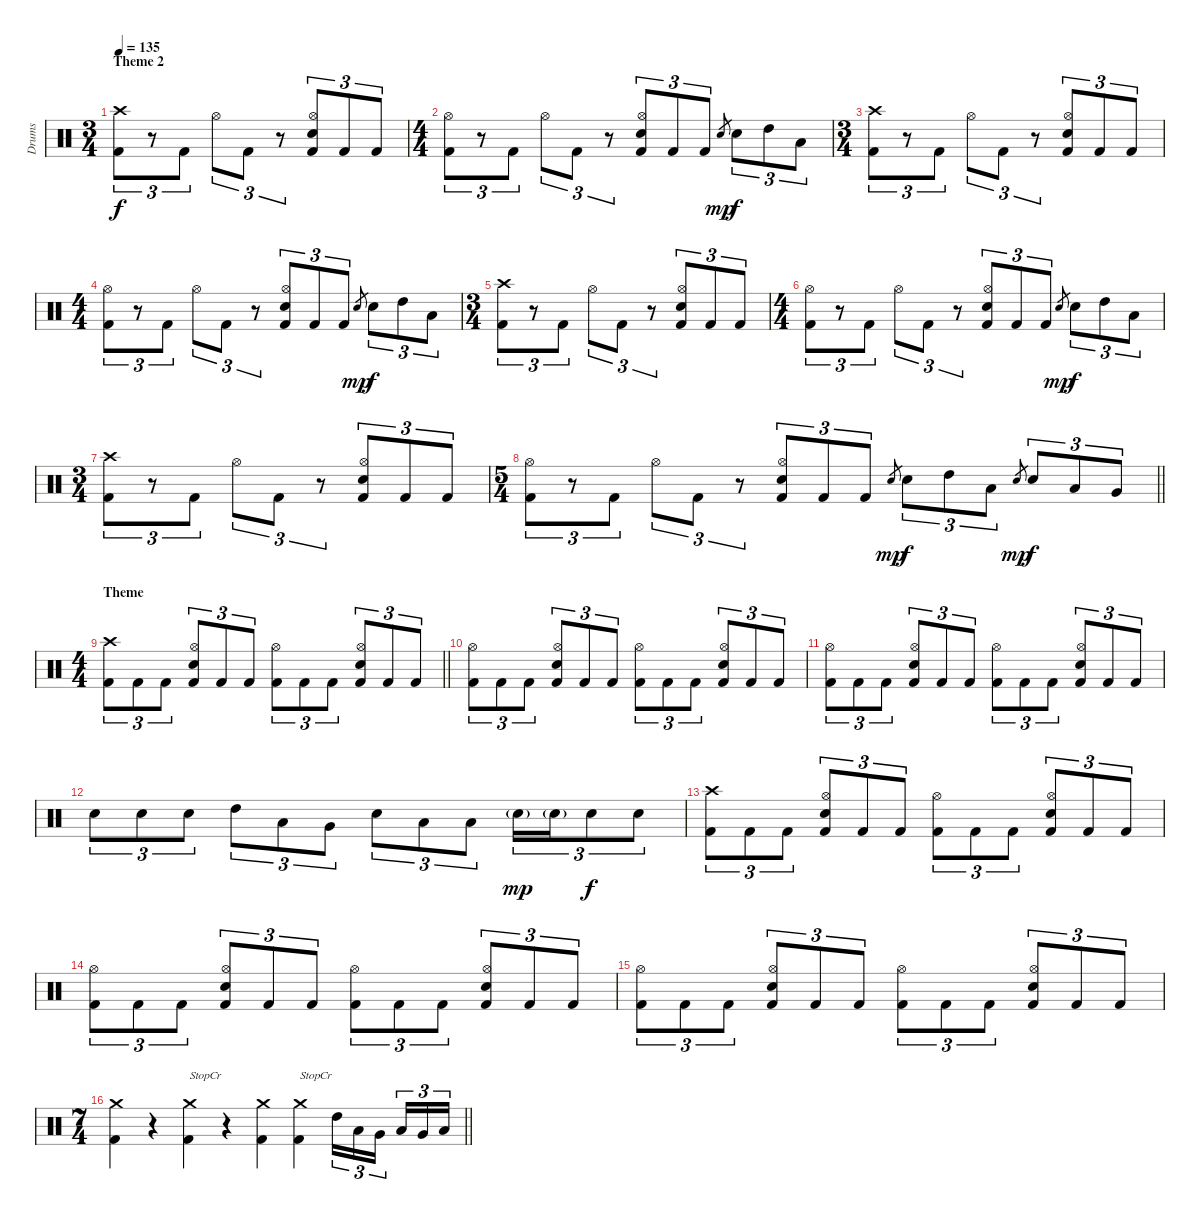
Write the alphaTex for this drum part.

\track ("Drums" "Drums") {instrument percussion}
\staff {score}
\articulation defaults
\ts (3 4)
\section ("" "Theme 2")
\tempo 135
\clef neutral
\ks c
("Crash high (hit)" "Kick (hit) 2").8{tu (3 2) dy f} r.8{tu (3 2)} "Kick (hit) 2".8{tu (3 2)} "Hi-Hat (open)".8{tu (3 2)} "Kick (hit) 2".8{tu (3 2)} r.8{tu (3 2)} ("Hi-Hat (open)" "Snare (hit) 2" "Kick (hit) 2").8{tu (3 2)} "Kick (hit) 2".8{tu (3 2)} "Kick (hit) 2".8{tu (3 2)} |
\ts (4 4)
("Hi-Hat (open)" "Kick (hit) 2").8{tu (3 2)} r.8{tu (3 2)} "Kick (hit) 2".8{tu (3 2)} "Hi-Hat (open)".8{tu (3 2)} "Kick (hit) 2".8{tu (3 2)} r.8{tu (3 2)} ("Hi-Hat (open)" "Snare (hit) 2" "Kick (hit) 2").8{tu (3 2)} "Kick (hit) 2".8{tu (3 2)} "Kick (hit) 2".8{tu (3 2)} "Snare (hit) 2".8{gr dy mp} "Snare (hit) 2".8{tu (3 2) dy f} "High Tom (hit)".8{tu (3 2)} "Low Tom (hit)".8{tu (3 2)} |
\ts (3 4)
("Crash high (hit)" "Kick (hit) 2").8{tu (3 2)} r.8{tu (3 2)} "Kick (hit) 2".8{tu (3 2)} "Hi-Hat (open)".8{tu (3 2)} "Kick (hit) 2".8{tu (3 2)} r.8{tu (3 2)} ("Hi-Hat (open)" "Snare (hit) 2" "Kick (hit) 2").8{tu (3 2)} "Kick (hit) 2".8{tu (3 2)} "Kick (hit) 2".8{tu (3 2)} |
\ts (4 4)
("Hi-Hat (open)" "Kick (hit) 2").8{tu (3 2)} r.8{tu (3 2)} "Kick (hit) 2".8{tu (3 2)} "Hi-Hat (open)".8{tu (3 2)} "Kick (hit) 2".8{tu (3 2)} r.8{tu (3 2)} ("Hi-Hat (open)" "Snare (hit) 2" "Kick (hit) 2").8{tu (3 2)} "Kick (hit) 2".8{tu (3 2)} "Kick (hit) 2".8{tu (3 2)} "Snare (hit) 2".8{gr dy mp} "Snare (hit) 2".8{tu (3 2) dy f} "High Tom (hit)".8{tu (3 2)} "Low Tom (hit)".8{tu (3 2)} |
\ts (3 4)
("Crash high (hit)" "Kick (hit) 2").8{tu (3 2)} r.8{tu (3 2)} "Kick (hit) 2".8{tu (3 2)} "Hi-Hat (open)".8{tu (3 2)} "Kick (hit) 2".8{tu (3 2)} r.8{tu (3 2)} ("Hi-Hat (open)" "Snare (hit) 2" "Kick (hit) 2").8{tu (3 2)} "Kick (hit) 2".8{tu (3 2)} "Kick (hit) 2".8{tu (3 2)} |
\ts (4 4)
("Hi-Hat (open)" "Kick (hit) 2").8{tu (3 2)} r.8{tu (3 2)} "Kick (hit) 2".8{tu (3 2)} "Hi-Hat (open)".8{tu (3 2)} "Kick (hit) 2".8{tu (3 2)} r.8{tu (3 2)} ("Hi-Hat (open)" "Snare (hit) 2" "Kick (hit) 2").8{tu (3 2)} "Kick (hit) 2".8{tu (3 2)} "Kick (hit) 2".8{tu (3 2)} "Snare (hit) 2".8{gr dy mp} "Snare (hit) 2".8{tu (3 2) dy f} "High Tom (hit)".8{tu (3 2)} "Low Tom (hit)".8{tu (3 2)} |
\ts (3 4)
("Crash high (hit)" "Kick (hit) 2").8{tu (3 2)} r.8{tu (3 2)} "Kick (hit) 2".8{tu (3 2)} "Hi-Hat (open)".8{tu (3 2)} "Kick (hit) 2".8{tu (3 2)} r.8{tu (3 2)} ("Hi-Hat (open)" "Snare (hit) 2" "Kick (hit) 2").8{tu (3 2)} "Kick (hit) 2".8{tu (3 2)} "Kick (hit) 2".8{tu (3 2)} |
\ts (5 4)
\barLineRight lightlight
("Hi-Hat (open)" "Kick (hit) 2").8{tu (3 2)} r.8{tu (3 2)} "Kick (hit) 2".8{tu (3 2)} "Hi-Hat (open)".8{tu (3 2)} "Kick (hit) 2".8{tu (3 2)} r.8{tu (3 2)} ("Hi-Hat (open)" "Snare (hit) 2" "Kick (hit) 2").8{tu (3 2)} "Kick (hit) 2".8{tu (3 2)} "Kick (hit) 2".8{tu (3 2)} "Snare (hit) 2".8{gr dy mp} "Snare (hit) 2".8{tu (3 2) dy f} "High Tom (hit)".8{tu (3 2)} "Low Tom (hit)".8{tu (3 2)} "Snare (hit) 2".8{gr dy mp} "Snare (hit) 2".8{tu (3 2) dy f} "Low Tom (hit)".8{tu (3 2)} "Very Low Tom (hit)".8{tu (3 2)} |
\ts (4 4)
\section ("" "Theme")
\barLineRight lightlight
("Crash high (hit)" "Kick (hit) 2").8{tu (3 2)} "Kick (hit) 2".8{tu (3 2)} "Kick (hit) 2".8{tu (3 2)} ("Hi-Hat (open)" "Snare (hit) 2" "Kick (hit) 2").8{tu (3 2)} "Kick (hit) 2".8{tu (3 2)} "Kick (hit) 2".8{tu (3 2)} ("Hi-Hat (open)" "Kick (hit) 2").8{tu (3 2)} "Kick (hit) 2".8{tu (3 2)} "Kick (hit) 2".8{tu (3 2)} ("Hi-Hat (open)" "Snare (hit) 2" "Kick (hit) 2").8{tu (3 2)} "Kick (hit) 2".8{tu (3 2)} "Kick (hit) 2".8{tu (3 2)} |
\section ("" "")
("Hi-Hat (open)" "Kick (hit) 2").8{tu (3 2)} "Kick (hit) 2".8{tu (3 2)} "Kick (hit) 2".8{tu (3 2)} ("Hi-Hat (open)" "Snare (hit) 2" "Kick (hit) 2").8{tu (3 2)} "Kick (hit) 2".8{tu (3 2)} "Kick (hit) 2".8{tu (3 2)} ("Hi-Hat (open)" "Kick (hit) 2").8{tu (3 2)} "Kick (hit) 2".8{tu (3 2)} "Kick (hit) 2".8{tu (3 2)} ("Hi-Hat (open)" "Snare (hit) 2" "Kick (hit) 2").8{tu (3 2)} "Kick (hit) 2".8{tu (3 2)} "Kick (hit) 2".8{tu (3 2)} |
("Hi-Hat (open)" "Kick (hit) 2").8{tu (3 2)} "Kick (hit) 2".8{tu (3 2)} "Kick (hit) 2".8{tu (3 2)} ("Hi-Hat (open)" "Snare (hit) 2" "Kick (hit) 2").8{tu (3 2)} "Kick (hit) 2".8{tu (3 2)} "Kick (hit) 2".8{tu (3 2)} ("Hi-Hat (open)" "Kick (hit) 2").8{tu (3 2)} "Kick (hit) 2".8{tu (3 2)} "Kick (hit) 2".8{tu (3 2)} ("Hi-Hat (open)" "Snare (hit) 2" "Kick (hit) 2").8{tu (3 2)} "Kick (hit) 2".8{tu (3 2)} "Kick (hit) 2".8{tu (3 2)} |
"Snare (hit) 2".8{tu (3 2)} "Snare (hit) 2".8{tu (3 2)} "Snare (hit) 2".8{tu (3 2)} "High Tom (hit)".8{tu (3 2)} "Low Tom (hit)".8{tu (3 2)} "Very Low Tom (hit)".8{tu (3 2)} "Snare (hit) 2".8{tu (3 2)} "Low Tom (hit)".8{tu (3 2)} "Low Floor Tom (hit)".8{tu (3 2)} "Snare (hit) 2"{g}.16{tu (3 2) dy mp} "Snare (hit) 2"{g}.16{tu (3 2)} "Snare (hit) 2".8{tu (3 2) dy f} "Snare (hit) 2".8{tu (3 2)} |
("Crash high (hit)" "Kick (hit) 2").8{tu (3 2)} "Kick (hit) 2".8{tu (3 2)} "Kick (hit) 2".8{tu (3 2)} ("Hi-Hat (open)" "Snare (hit) 2" "Kick (hit) 2").8{tu (3 2)} "Kick (hit) 2".8{tu (3 2)} "Kick (hit) 2".8{tu (3 2)} ("Hi-Hat (open)" "Kick (hit) 2").8{tu (3 2)} "Kick (hit) 2".8{tu (3 2)} "Kick (hit) 2".8{tu (3 2)} ("Hi-Hat (open)" "Snare (hit) 2" "Kick (hit) 2").8{tu (3 2)} "Kick (hit) 2".8{tu (3 2)} "Kick (hit) 2".8{tu (3 2)} |
("Hi-Hat (open)" "Kick (hit) 2").8{tu (3 2)} "Kick (hit) 2".8{tu (3 2)} "Kick (hit) 2".8{tu (3 2)} ("Hi-Hat (open)" "Snare (hit) 2" "Kick (hit) 2").8{tu (3 2)} "Kick (hit) 2".8{tu (3 2)} "Kick (hit) 2".8{tu (3 2)} ("Hi-Hat (open)" "Kick (hit) 2").8{tu (3 2)} "Kick (hit) 2".8{tu (3 2)} "Kick (hit) 2".8{tu (3 2)} ("Hi-Hat (open)" "Snare (hit) 2" "Kick (hit) 2").8{tu (3 2)} "Kick (hit) 2".8{tu (3 2)} "Kick (hit) 2".8{tu (3 2)} |
("Hi-Hat (open)" "Kick (hit) 2").8{tu (3 2)} "Kick (hit) 2".8{tu (3 2)} "Kick (hit) 2".8{tu (3 2)} ("Hi-Hat (open)" "Snare (hit) 2" "Kick (hit) 2").8{tu (3 2)} "Kick (hit) 2".8{tu (3 2)} "Kick (hit) 2".8{tu (3 2)} ("Hi-Hat (open)" "Kick (hit) 2").8{tu (3 2)} "Kick (hit) 2".8{tu (3 2)} "Kick (hit) 2".8{tu (3 2)} ("Hi-Hat (open)" "Snare (hit) 2" "Kick (hit) 2").8{tu (3 2)} "Kick (hit) 2".8{tu (3 2)} "Kick (hit) 2".8{tu (3 2)} |
\ts (7 4)
\barLineRight lightlight
("Crash medium (hit)" "Kick (hit) 2").4 r.4 ("Crash medium (hit)" "Kick (hit) 2").4{txt "StopCr"} r.4 ("Crash medium (hit)" "Kick (hit) 2").4 ("Crash medium (hit)" "Kick (hit) 2").4{txt "StopCr"} "High Tom (hit)".16{tu (3 2)} "Low Tom (hit)".16{tu (3 2)} "Very Low Tom (hit)".16{tu (3 2) beam splitsecondary} "Low Tom (hit)".16{tu (3 2)} "Very Low Tom (hit)".16{tu (3 2)} "Low Floor Tom (hit)".16{tu (3 2)}
